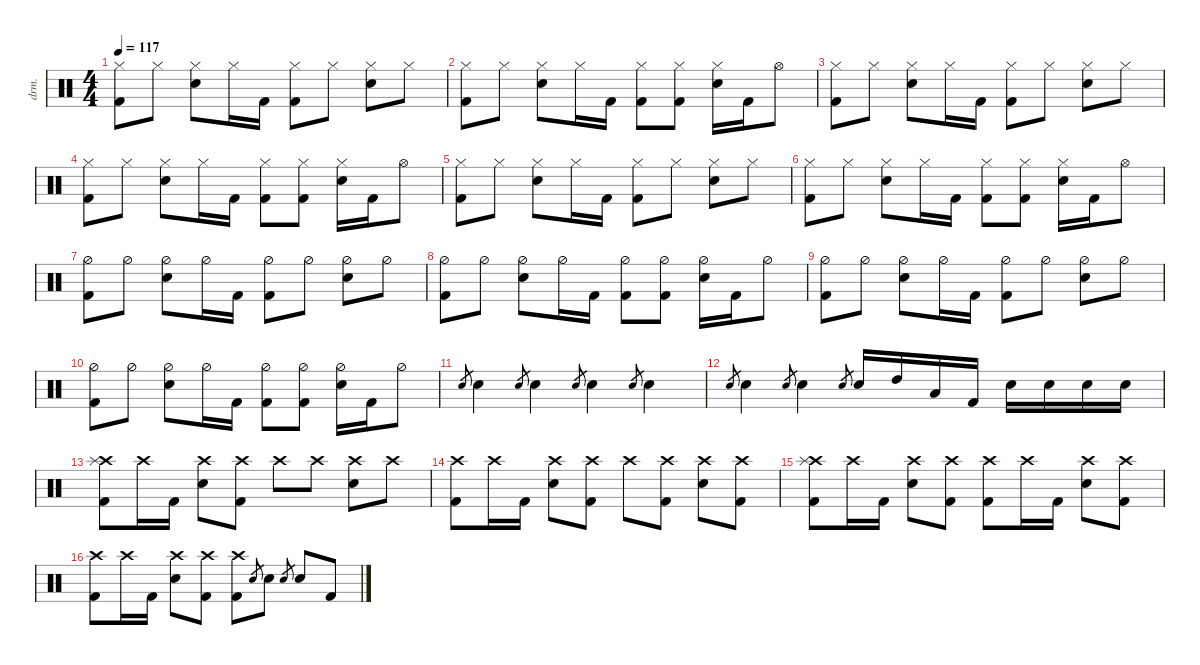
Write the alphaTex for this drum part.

\defaultSystemsLayout 4
\hideDynamics
\bracketExtendMode nobrackets
\track ("Drums" "drm.") {instrument percussion}
\staff {score}
\articulation defaults
\ts (4 4)
\tempo 117
\clef neutral
\ks c
("Hi-Hat (closed)" "Kick (hit) 2").8{dy mf beam Down} "Hi-Hat (closed)".8{beam Down} ("Hi-Hat (closed)" "Snare (hit) 2").8{beam Down} "Hi-Hat (closed)".16{beam Down} "Kick (hit) 2".16{beam Down} ("Hi-Hat (closed)" "Kick (hit) 2").8{beam Down} "Hi-Hat (closed)".8{beam Down} ("Hi-Hat (closed)" "Snare (hit) 2").8{beam Down} "Hi-Hat (closed)".8{beam Down} |
("Hi-Hat (closed)" "Kick (hit) 2").8{beam Down} "Hi-Hat (closed)".8{beam Down} ("Hi-Hat (closed)" "Snare (hit) 2").8{beam Down} "Hi-Hat (closed)".16{beam Down} "Kick (hit) 2".16{beam Down} ("Hi-Hat (closed)" "Kick (hit) 2").8{beam Down} ("Hi-Hat (closed)" "Kick (hit) 2").8{beam Down} ("Hi-Hat (closed)" "Snare (hit) 2").16{beam Down} "Kick (hit) 2".16{beam Down} "Hi-Hat (open)".8{beam Down} |
("Hi-Hat (closed)" "Kick (hit) 2").8{beam Down} "Hi-Hat (closed)".8{beam Down} ("Hi-Hat (closed)" "Snare (hit) 2").8{beam Down} "Hi-Hat (closed)".16{beam Down} "Kick (hit) 2".16{beam Down} ("Hi-Hat (closed)" "Kick (hit) 2").8{beam Down} "Hi-Hat (closed)".8{beam Down} ("Hi-Hat (closed)" "Snare (hit) 2").8{beam Down} "Hi-Hat (closed)".8{beam Down} |
("Hi-Hat (closed)" "Kick (hit) 2").8{beam Down} "Hi-Hat (closed)".8{beam Down} ("Hi-Hat (closed)" "Snare (hit) 2").8{beam Down} "Hi-Hat (closed)".16{beam Down} "Kick (hit) 2".16{beam Down} ("Hi-Hat (closed)" "Kick (hit) 2").8{beam Down} ("Hi-Hat (closed)" "Kick (hit) 2").8{beam Down} ("Hi-Hat (closed)" "Snare (hit) 2").16{beam Down} "Kick (hit) 2".16{beam Down} "Hi-Hat (open)".8{beam Down} |
("Hi-Hat (closed)" "Kick (hit) 2").8{beam Down} "Hi-Hat (closed)".8{beam Down} ("Hi-Hat (closed)" "Snare (hit) 2").8{beam Down} "Hi-Hat (closed)".16{beam Down} "Kick (hit) 2".16{beam Down} ("Hi-Hat (closed)" "Kick (hit) 2").8{beam Down} "Hi-Hat (closed)".8{beam Down} ("Hi-Hat (closed)" "Snare (hit) 2").8{beam Down} "Hi-Hat (closed)".8{beam Down} |
("Hi-Hat (closed)" "Kick (hit) 2").8{beam Down} "Hi-Hat (closed)".8{beam Down} ("Hi-Hat (closed)" "Snare (hit) 2").8{beam Down} "Hi-Hat (closed)".16{beam Down} "Kick (hit) 2".16{beam Down} ("Hi-Hat (closed)" "Kick (hit) 2").8{beam Down} ("Hi-Hat (closed)" "Kick (hit) 2").8{beam Down} ("Hi-Hat (closed)" "Snare (hit) 2").16{beam Down} "Kick (hit) 2".16{beam Down} "Hi-Hat (open)".8{beam Down} |
("Hi-Hat (half)" "Kick (hit) 2").8{beam Down} "Hi-Hat (half)".8{beam Down} ("Hi-Hat (half)" "Snare (hit) 2").8{beam Down} "Hi-Hat (half)".16{beam Down} "Kick (hit) 2".16{beam Down} ("Hi-Hat (half)" "Kick (hit) 2").8{beam Down} "Hi-Hat (half)".8{beam Down} ("Hi-Hat (half)" "Snare (hit) 2").8{beam Down} "Hi-Hat (half)".8{beam Down} |
("Hi-Hat (half)" "Kick (hit) 2").8{beam Down} "Hi-Hat (half)".8{beam Down} ("Hi-Hat (half)" "Snare (hit) 2").8{beam Down} "Hi-Hat (half)".16{beam Down} "Kick (hit) 2".16{beam Down} ("Hi-Hat (half)" "Kick (hit) 2").8{beam Down} ("Hi-Hat (half)" "Kick (hit) 2").8{beam Down} ("Hi-Hat (half)" "Snare (hit) 2").16{beam Down} "Kick (hit) 2".16{beam Down} "Hi-Hat (half)".8{beam Down} |
("Hi-Hat (half)" "Kick (hit) 2").8{beam Down} "Hi-Hat (half)".8{beam Down} ("Hi-Hat (half)" "Snare (hit) 2").8{beam Down} "Hi-Hat (half)".16{beam Down} "Kick (hit) 2".16{beam Down} ("Hi-Hat (half)" "Kick (hit) 2").8{beam Down} "Hi-Hat (half)".8{beam Down} ("Hi-Hat (half)" "Snare (hit) 2").8{beam Down} "Hi-Hat (half)".8{beam Down} |
("Hi-Hat (half)" "Kick (hit) 2").8{beam Down} "Hi-Hat (half)".8{beam Down} ("Hi-Hat (half)" "Snare (hit) 2").8{beam Down} "Hi-Hat (half)".16{beam Down} "Kick (hit) 2".16{beam Down} ("Hi-Hat (half)" "Kick (hit) 2").8{beam Down} ("Hi-Hat (half)" "Kick (hit) 2").8{beam Down} ("Hi-Hat (half)" "Snare (hit) 2").16{beam Down} "Kick (hit) 2".16{beam Down} "Hi-Hat (half)".8{beam Down} |
"Snare (hit) 2".8{gr beam Up} "Snare (hit) 2".4{beam Down} "Snare (hit) 2".8{gr beam Up} "Snare (hit) 2".4{beam Down} "Snare (hit) 2".8{gr beam Up} "Snare (hit) 2".4{beam Down} "Snare (hit) 2".8{gr beam Up} "Snare (hit) 2".4{beam Down} |
"Snare (hit) 2".8{gr beam Up} "Snare (hit) 2".4{beam Down} "Snare (hit) 2".8{gr beam Up} "Snare (hit) 2".4{beam Down} "Snare (hit) 2".8{gr beam Up} "Snare (hit) 2".16{beam Up} "High Tom (hit)".16{beam Up} "Low Tom (hit)".16{beam Up} "Kick (hit) 2".16{beam Up} "Snare (hit) 2".16{beam Down} "Snare (hit) 2".16{beam Down} "Snare (hit) 2".16{beam Down} "Snare (hit) 2".16{beam Down} |
("Kick (hit) 2" "Crash high (hit)" "Splash (hit)").8{beam Down} "Crash high (hit)".16{beam Down} "Kick (hit) 2".16{beam Down} ("Snare (hit) 2" "Crash high (hit)").8{beam Down} ("Kick (hit) 2" "Crash high (hit)").8{beam Down} "Crash high (hit)".8{beam Down} "Crash high (hit)".8{beam Down} ("Snare (hit) 2" "Crash high (hit)").8{beam Down} "Crash high (hit)".8{beam Down} |
("Kick (hit) 2" "Crash high (hit)").8{beam Down} "Crash high (hit)".16{beam Down} "Kick (hit) 2".16{beam Down} ("Snare (hit) 2" "Crash high (hit)").8{beam Down} ("Kick (hit) 2" "Crash high (hit)").8{beam Down} "Crash high (hit)".8{beam Down} ("Kick (hit) 2" "Crash high (hit)").8{beam Down} ("Snare (hit) 2" "Crash high (hit)").8{beam Down} ("Kick (hit) 2" "Crash high (hit)").8{beam Down} |
("Kick (hit) 2" "Crash high (hit)" "Splash (hit)").8{beam Down} "Crash high (hit)".16{beam Down} "Kick (hit) 2".16{beam Down} ("Snare (hit) 2" "Crash high (hit)").8{beam Down} ("Kick (hit) 2" "Crash high (hit)").8{beam Down} ("Kick (hit) 2" "Crash high (hit)").8{beam Down} "Crash high (hit)".16{beam Down} "Kick (hit) 2".16{beam Down} ("Snare (hit) 2" "Crash high (hit)").8{beam Down} ("Kick (hit) 2" "Crash high (hit)").8{beam Down} |
("Kick (hit) 2" "Crash high (hit)").8{beam Down} "Crash high (hit)".16{beam Down} "Kick (hit) 2".16{beam Down} ("Snare (hit) 2" "Crash high (hit)").8{beam Down} ("Kick (hit) 2" "Crash high (hit)").8{beam Down} ("Kick (hit) 2" "Crash high (hit)").8{beam Down} "Snare (hit) 2".8{gr beam Up} "Snare (hit) 2".8{beam Down} "Snare (hit) 2".8{gr beam Up} "Snare (hit) 2".8{beam Up} "Kick (hit) 2".8{beam Up}
